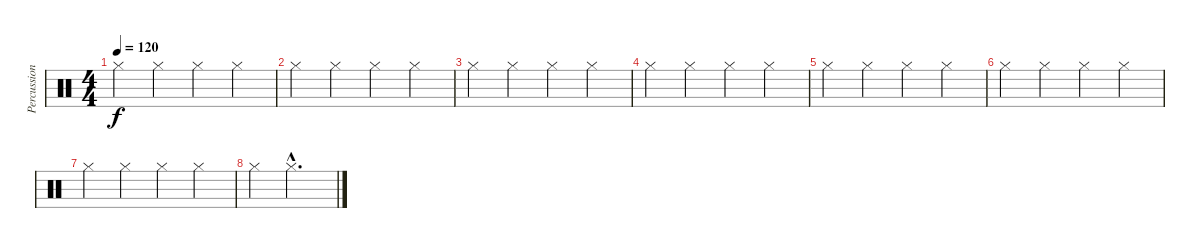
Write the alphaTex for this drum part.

\track ("Percussion" "Percussion") {instrument percussion}
\staff {score}
\articulation defaults
\ts (4 4)
\tempo 120
\clef neutral
\ks c "Hi-Hat (closed)".4{dy f} "Hi-Hat (closed)".4 "Hi-Hat (closed)".4 "Hi-Hat (closed)".4
|
"Hi-Hat (closed)".4 "Hi-Hat (closed)".4 "Hi-Hat (closed)".4 "Hi-Hat (closed)".4 |
"Hi-Hat (closed)".4 "Hi-Hat (closed)".4 "Hi-Hat (closed)".4 "Hi-Hat (closed)".4 |
"Hi-Hat (closed)".4 "Hi-Hat (closed)".4 "Hi-Hat (closed)".4 "Hi-Hat (closed)".4 |
"Hi-Hat (closed)".4 "Hi-Hat (closed)".4 "Hi-Hat (closed)".4 "Hi-Hat (closed)".4 |
"Hi-Hat (closed)".4 "Hi-Hat (closed)".4 "Hi-Hat (closed)".4 "Hi-Hat (closed)".4 |
"Hi-Hat (closed)".4 "Hi-Hat (closed)".4 "Hi-Hat (closed)".4 "Hi-Hat (closed)".4 |
"Hi-Hat (closed)".4 "Hi-Hat (closed)"{hac}.2{d}
